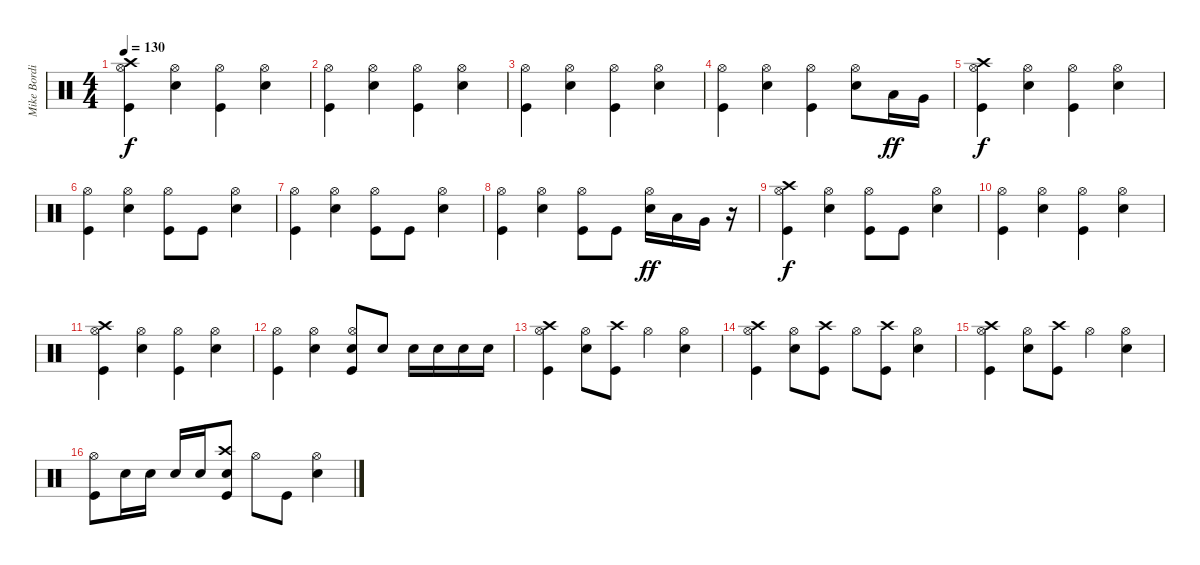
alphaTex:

\track ("Mike Bordin" "Mike Bordi") {instrument percussion}
\staff {score}
\articulation defaults
\ts (4 4)
\tempo 130
\clef neutral
\ks c
("Kick (hit)" "Hi-Hat (open)" "Crash high (hit)").4{dy f} ("Snare (hit) 2" "Hi-Hat (open)").4 ("Kick (hit)" "Hi-Hat (open)").4 ("Snare (hit) 2" "Hi-Hat (open)").4 |
("Kick (hit)" "Hi-Hat (open)").4 ("Snare (hit) 2" "Hi-Hat (open)").4 ("Kick (hit)" "Hi-Hat (open)").4 ("Snare (hit) 2" "Hi-Hat (open)").4 |
("Kick (hit)" "Hi-Hat (open)").4 ("Snare (hit) 2" "Hi-Hat (open)").4 ("Kick (hit)" "Hi-Hat (open)").4 ("Snare (hit) 2" "Hi-Hat (open)").4 |
("Kick (hit)" "Hi-Hat (open)").4 ("Snare (hit) 2" "Hi-Hat (open)").4 ("Kick (hit)" "Hi-Hat (open)").4 ("Snare (hit) 2" "Hi-Hat (open)").8 "Low Tom (hit)".16{dy ff} "Very Low Tom (hit)".16 |
("Kick (hit)" "Hi-Hat (open)" "Crash high (hit)").4{dy f} ("Snare (hit) 2" "Hi-Hat (open)").4 ("Kick (hit)" "Hi-Hat (open)").4 ("Snare (hit) 2" "Hi-Hat (open)").4 |
("Kick (hit)" "Hi-Hat (open)").4 ("Snare (hit) 2" "Hi-Hat (open)").4 ("Kick (hit)" "Hi-Hat (open)").8 "Kick (hit)".8 ("Snare (hit) 2" "Hi-Hat (open)").4 |
("Kick (hit)" "Hi-Hat (open)").4 ("Snare (hit) 2" "Hi-Hat (open)").4 ("Kick (hit)" "Hi-Hat (open)").8 "Kick (hit)".8 ("Snare (hit) 2" "Hi-Hat (open)").4 |
("Kick (hit)" "Hi-Hat (open)").4 ("Snare (hit) 2" "Hi-Hat (open)").4 ("Kick (hit)" "Hi-Hat (open)").8 "Kick (hit)".8 ("Snare (hit) 2" "Hi-Hat (open)").16{dy ff} "Low Tom (hit)".16 "Very Low Tom (hit)".16 r.16 |
("Kick (hit)" "Hi-Hat (open)" "Crash high (hit)").4{dy f} ("Snare (hit) 2" "Hi-Hat (open)").4 ("Kick (hit)" "Hi-Hat (open)").8 "Kick (hit)".8 ("Snare (hit) 2" "Hi-Hat (open)").4 |
("Kick (hit)" "Hi-Hat (open)").4 ("Snare (hit) 2" "Hi-Hat (open)").4 ("Kick (hit)" "Hi-Hat (open)").4 ("Snare (hit) 2" "Hi-Hat (open)").4 |
("Kick (hit)" "Hi-Hat (open)" "Crash high (hit)").4 ("Snare (hit) 2" "Hi-Hat (open)").4 ("Kick (hit)" "Hi-Hat (open)").4 ("Snare (hit) 2" "Hi-Hat (open)").4 |
("Kick (hit)" "Hi-Hat (open)").4 ("Snare (hit) 2" "Hi-Hat (open)").4 ("Kick (hit)" "Snare (hit) 2" "Hi-Hat (open)").8 "Snare (hit) 2".8 "Snare (hit) 2".16 "Snare (hit) 2".16 "Snare (hit) 2".16 "Snare (hit) 2".16 |
("Kick (hit)" "Hi-Hat (open)" "Crash high (hit)").4 ("Snare (hit) 2" "Hi-Hat (open)").8 ("Kick (hit)" "Crash high (hit)").8 "Hi-Hat (open)".4 ("Snare (hit) 2" "Hi-Hat (open)").4 |
("Kick (hit)" "Hi-Hat (open)" "Crash high (hit)").4 ("Snare (hit) 2" "Hi-Hat (open)").8 ("Kick (hit)" "Crash high (hit)").8 "Hi-Hat (open)".8 ("Kick (hit)" "Crash high (hit)").8 ("Snare (hit) 2" "Hi-Hat (open)").4 |
("Kick (hit)" "Hi-Hat (open)" "Crash high (hit)").4 ("Snare (hit) 2" "Hi-Hat (open)").8 ("Kick (hit)" "Crash high (hit)").8 "Hi-Hat (open)".4 ("Snare (hit) 2" "Hi-Hat (open)").4 |
("Kick (hit)" "Hi-Hat (open)").8 "Snare (hit) 2".16 "Snare (hit) 2".16 "Snare (hit) 2".16 "Snare (hit) 2".16 ("Kick (hit)" "Snare (hit) 2" "Crash high (hit)").8 "Hi-Hat (open)".8 "Kick (hit)".8 ("Snare (hit) 2" "Hi-Hat (open)").4
